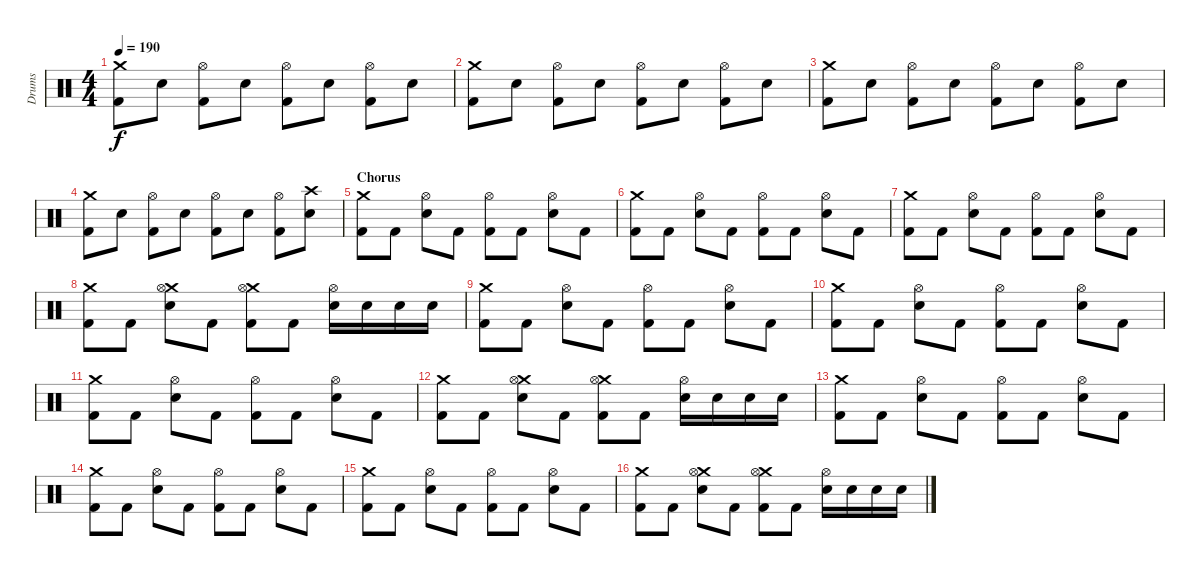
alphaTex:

\track ("Drums" "Drums") {instrument percussion}
\staff {score}
\articulation defaults
\ts (4 4)
\tempo 190
\clef neutral
\ks c
("Crash medium (hit)" "Kick (hit) 2").8{dy f} "Snare (hit) 2".8 ("Hi-Hat (open)" "Kick (hit) 2").8 "Snare (hit) 2".8 ("Hi-Hat (open)" "Kick (hit) 2").8 "Snare (hit) 2".8 ("Hi-Hat (open)" "Kick (hit) 2").8 "Snare (hit) 2".8 |
("Crash medium (hit)" "Kick (hit) 2").8 "Snare (hit) 2".8 ("Hi-Hat (open)" "Kick (hit) 2").8 "Snare (hit) 2".8 ("Hi-Hat (open)" "Kick (hit) 2").8 "Snare (hit) 2".8 ("Hi-Hat (open)" "Kick (hit) 2").8 "Snare (hit) 2".8 |
("Crash medium (hit)" "Kick (hit) 2").8 "Snare (hit) 2".8 ("Hi-Hat (open)" "Kick (hit) 2").8 "Snare (hit) 2".8 ("Hi-Hat (open)" "Kick (hit) 2").8 "Snare (hit) 2".8 ("Hi-Hat (open)" "Kick (hit) 2").8 "Snare (hit) 2".8 |
("Crash medium (hit)" "Kick (hit) 2").8 "Snare (hit) 2".8 ("Hi-Hat (open)" "Kick (hit) 2").8 "Snare (hit) 2".8 ("Hi-Hat (open)" "Kick (hit) 2").8 "Snare (hit) 2".8 ("Hi-Hat (open)" "Kick (hit) 2").8 ("Crash high (hit)" "Snare (hit) 2").8 |
\section ("" "Chorus")
("Crash medium (hit)" "Kick (hit) 2").8 "Kick (hit) 2".8 ("Hi-Hat (open)" "Snare (hit) 2").8 "Kick (hit) 2".8 ("Hi-Hat (open)" "Kick (hit) 2").8 "Kick (hit) 2".8 ("Hi-Hat (open)" "Snare (hit) 2").8 "Kick (hit) 2".8 |
("Crash medium (hit)" "Kick (hit) 2").8 "Kick (hit) 2".8 ("Hi-Hat (open)" "Snare (hit) 2").8 "Kick (hit) 2".8 ("Hi-Hat (open)" "Kick (hit) 2").8 "Kick (hit) 2".8 ("Hi-Hat (open)" "Snare (hit) 2").8 "Kick (hit) 2".8 |
("Crash medium (hit)" "Kick (hit) 2").8 "Kick (hit) 2".8 ("Hi-Hat (open)" "Snare (hit) 2").8 "Kick (hit) 2".8 ("Hi-Hat (open)" "Kick (hit) 2").8 "Kick (hit) 2".8 ("Hi-Hat (open)" "Snare (hit) 2").8 "Kick (hit) 2".8 |
("Crash medium (hit)" "Kick (hit) 2").8 "Kick (hit) 2".8 ("Crash medium (hit)" "Hi-Hat (open)" "Snare (hit) 2").8 "Kick (hit) 2".8 ("Crash medium (hit)" "Hi-Hat (open)" "Kick (hit) 2").8 "Kick (hit) 2".8 ("Hi-Hat (open)" "Snare (hit) 2").16 "Snare (hit) 2".16 "Snare (hit) 2".16 "Snare (hit) 2".16 |
("Crash medium (hit)" "Kick (hit) 2").8 "Kick (hit) 2".8 ("Hi-Hat (open)" "Snare (hit) 2").8 "Kick (hit) 2".8 ("Hi-Hat (open)" "Kick (hit) 2").8 "Kick (hit) 2".8 ("Hi-Hat (open)" "Snare (hit) 2").8 "Kick (hit) 2".8 |
("Crash medium (hit)" "Kick (hit) 2").8 "Kick (hit) 2".8 ("Hi-Hat (open)" "Snare (hit) 2").8 "Kick (hit) 2".8 ("Hi-Hat (open)" "Kick (hit) 2").8 "Kick (hit) 2".8 ("Hi-Hat (open)" "Snare (hit) 2").8 "Kick (hit) 2".8 |
("Crash medium (hit)" "Kick (hit) 2").8 "Kick (hit) 2".8 ("Hi-Hat (open)" "Snare (hit) 2").8 "Kick (hit) 2".8 ("Hi-Hat (open)" "Kick (hit) 2").8 "Kick (hit) 2".8 ("Hi-Hat (open)" "Snare (hit) 2").8 "Kick (hit) 2".8 |
("Crash medium (hit)" "Kick (hit) 2").8 "Kick (hit) 2".8 ("Crash medium (hit)" "Hi-Hat (open)" "Snare (hit) 2").8 "Kick (hit) 2".8 ("Crash medium (hit)" "Hi-Hat (open)" "Kick (hit) 2").8 "Kick (hit) 2".8 ("Hi-Hat (open)" "Snare (hit) 2").16 "Snare (hit) 2".16 "Snare (hit) 2".16 "Snare (hit) 2".16 |
("Crash medium (hit)" "Kick (hit) 2").8 "Kick (hit) 2".8 ("Hi-Hat (open)" "Snare (hit) 2").8 "Kick (hit) 2".8 ("Hi-Hat (open)" "Kick (hit) 2").8 "Kick (hit) 2".8 ("Hi-Hat (open)" "Snare (hit) 2").8 "Kick (hit) 2".8 |
("Crash medium (hit)" "Kick (hit) 2").8 "Kick (hit) 2".8 ("Hi-Hat (open)" "Snare (hit) 2").8 "Kick (hit) 2".8 ("Hi-Hat (open)" "Kick (hit) 2").8 "Kick (hit) 2".8 ("Hi-Hat (open)" "Snare (hit) 2").8 "Kick (hit) 2".8 |
("Crash medium (hit)" "Kick (hit) 2").8 "Kick (hit) 2".8 ("Hi-Hat (open)" "Snare (hit) 2").8 "Kick (hit) 2".8 ("Hi-Hat (open)" "Kick (hit) 2").8 "Kick (hit) 2".8 ("Hi-Hat (open)" "Snare (hit) 2").8 "Kick (hit) 2".8 |
("Crash medium (hit)" "Kick (hit) 2").8 "Kick (hit) 2".8 ("Crash medium (hit)" "Hi-Hat (open)" "Snare (hit) 2").8 "Kick (hit) 2".8 ("Crash medium (hit)" "Hi-Hat (open)" "Kick (hit) 2").8 "Kick (hit) 2".8 ("Hi-Hat (open)" "Snare (hit) 2").16 "Snare (hit) 2".16 "Snare (hit) 2".16 "Snare (hit) 2".16
